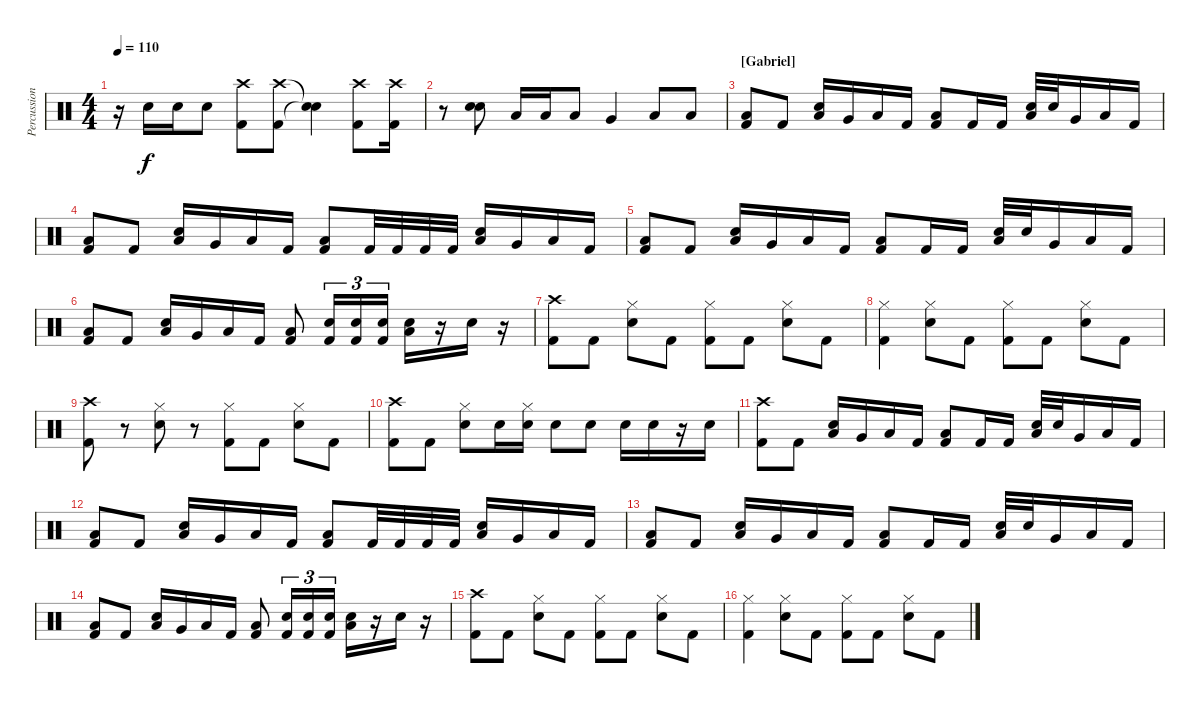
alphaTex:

\track ("Percussions" "Percussion") {instrument percussion}
\staff {score}
\articulation defaults
\ts (4 4)
\tempo 110
\clef neutral
\ks c
r.16{dy f} "Electric Snare (hit)".16 "Electric Snare (hit)".16 "Electric Snare (hit)".8 ("Crash high (hit)" "Kick (hit) 2").8 ("Crash high (hit)" "Kick (hit) 2").8 ("Snare (hit)"{t} "Snare (hit)"{t}).4 ("Crash high (hit)" "Kick (hit) 2").8 ("Crash high (hit)" "Kick (hit) 2").16 |
r.8 ("Electric Snare (hit)" "Electric Snare (hit)").8 "Low Tom (hit)".16 "Low Tom (hit)".16 "Low Tom (hit)".8 "Very Low Tom (hit)".4 "Low Floor Tom (hit)".8 "Low Floor Tom (hit)".8 |
\section ("" "[Gabriel]")
("Low Tom (hit)" "Kick (hit) 2").8 "Kick (hit) 2".8 ("Low Tom (hit)" "Electric Snare (hit)").16 "Very Low Tom (hit)".16 "Low Floor Tom (hit)".16 "Kick (hit) 2".16 ("Low Tom (hit)" "Kick (hit) 2").8 "Kick (hit) 2".16 "Kick (hit) 2".16 ("Low Tom (hit)" "Electric Snare (hit)").32 "Electric Snare (hit)".32 "Very Low Tom (hit)".16 "Low Floor Tom (hit)".16 "Kick (hit) 2".16 |
("Low Tom (hit)" "Kick (hit) 2").8 "Kick (hit) 2".8 ("Low Tom (hit)" "Electric Snare (hit)").16 "Very Low Tom (hit)".16 "Low Floor Tom (hit)".16 "Kick (hit) 2".16 ("Low Tom (hit)" "Kick (hit) 2").8 "Kick (hit) 2".32 "Kick (hit) 2".32 "Kick (hit) 2".32 "Kick (hit) 2".32 ("Low Tom (hit)" "Electric Snare (hit)").16 "Very Low Tom (hit)".16 "Low Floor Tom (hit)".16 "Kick (hit) 2".16 |
("Low Tom (hit)" "Kick (hit) 2").8 "Kick (hit) 2".8 ("Low Tom (hit)" "Electric Snare (hit)").16 "Very Low Tom (hit)".16 "Low Floor Tom (hit)".16 "Kick (hit) 2".16 ("Low Tom (hit)" "Kick (hit) 2").8 "Kick (hit) 2".16 "Kick (hit) 2".16 ("Low Tom (hit)" "Electric Snare (hit)").32 "Electric Snare (hit)".32 "Very Low Tom (hit)".16 "Low Floor Tom (hit)".16 "Kick (hit) 2".16 |
("Low Tom (hit)" "Kick (hit) 2").8 "Kick (hit) 2".8 ("Low Tom (hit)" "Electric Snare (hit)").16 "Very Low Tom (hit)".16 "Low Floor Tom (hit)".16 "Kick (hit) 2".16 ("Low Tom (hit)" "Kick (hit) 2").8 ("Electric Snare (hit)" "Kick (hit) 2").16{tu (3 2)} ("Electric Snare (hit)" "Kick (hit) 2").16{tu (3 2)} ("Electric Snare (hit)" "Kick (hit) 2").16{tu (3 2)} ("Low Tom (hit)" "Electric Snare (hit)").16 r.16 "Electric Snare (hit)".16 r.16 |
("Crash high (hit)" "Kick (hit) 2").8 "Kick (hit) 2".8 ("Hi-Hat (closed)" "Electric Snare (hit)").8 "Kick (hit) 2".8 ("Hi-Hat (closed)" "Kick (hit) 2").8 "Kick (hit) 2".8 ("Hi-Hat (closed)" "Electric Snare (hit)").8 "Kick (hit) 2".8 |
("Hi-Hat (closed)" "Kick (hit) 2").4 ("Hi-Hat (closed)" "Electric Snare (hit)").8 "Kick (hit) 2".8 ("Hi-Hat (closed)" "Kick (hit) 2").8 "Kick (hit) 2".8 ("Hi-Hat (closed)" "Electric Snare (hit)").8 "Kick (hit) 2".8 |
("Crash high (hit)" "Kick (hit) 2").8 r.8 ("Hi-Hat (closed)" "Electric Snare (hit)").8 r.8 ("Hi-Hat (closed)" "Kick (hit) 2").8 "Kick (hit) 2".8 ("Hi-Hat (closed)" "Electric Snare (hit)").8 "Kick (hit) 2".8 |
("Crash high (hit)" "Kick (hit) 2").8 "Kick (hit) 2".8 ("Hi-Hat (closed)" "Electric Snare (hit)").8 "Electric Snare (hit)".16 ("Hi-Hat (closed)" "Electric Snare (hit)").16 "Electric Snare (hit)".8 "Electric Snare (hit)".8 "Electric Snare (hit)".16 "Electric Snare (hit)".16 r.16 "Electric Snare (hit)".16 |
("Crash high (hit)" "Kick (hit) 2").8 "Kick (hit) 2".8 ("Low Tom (hit)" "Electric Snare (hit)").16 "Very Low Tom (hit)".16 "Low Floor Tom (hit)".16 "Kick (hit) 2".16 ("Low Tom (hit)" "Kick (hit) 2").8 "Kick (hit) 2".16 "Kick (hit) 2".16 ("Low Tom (hit)" "Electric Snare (hit)").32 "Electric Snare (hit)".32 "Very Low Tom (hit)".16 "Low Floor Tom (hit)".16 "Kick (hit) 2".16 |
("Low Tom (hit)" "Kick (hit) 2").8 "Kick (hit) 2".8 ("Low Tom (hit)" "Electric Snare (hit)").16 "Very Low Tom (hit)".16 "Low Floor Tom (hit)".16 "Kick (hit) 2".16 ("Low Tom (hit)" "Kick (hit) 2").8 "Kick (hit) 2".32 "Kick (hit) 2".32 "Kick (hit) 2".32 "Kick (hit) 2".32 ("Low Tom (hit)" "Electric Snare (hit)").16 "Very Low Tom (hit)".16 "Low Floor Tom (hit)".16 "Kick (hit) 2".16 |
("Low Tom (hit)" "Kick (hit) 2").8 "Kick (hit) 2".8 ("Low Tom (hit)" "Electric Snare (hit)").16 "Very Low Tom (hit)".16 "Low Floor Tom (hit)".16 "Kick (hit) 2".16 ("Low Tom (hit)" "Kick (hit) 2").8 "Kick (hit) 2".16 "Kick (hit) 2".16 ("Low Tom (hit)" "Electric Snare (hit)").32 "Electric Snare (hit)".32 "Very Low Tom (hit)".16 "Low Floor Tom (hit)".16 "Kick (hit) 2".16 |
("Low Tom (hit)" "Kick (hit) 2").8 "Kick (hit) 2".8 ("Low Tom (hit)" "Electric Snare (hit)").16 "Very Low Tom (hit)".16 "Low Floor Tom (hit)".16 "Kick (hit) 2".16 ("Low Tom (hit)" "Kick (hit) 2").8 ("Electric Snare (hit)" "Kick (hit) 2").16{tu (3 2)} ("Electric Snare (hit)" "Kick (hit) 2").16{tu (3 2)} ("Electric Snare (hit)" "Kick (hit) 2").16{tu (3 2)} ("Low Tom (hit)" "Electric Snare (hit)").16 r.16 "Electric Snare (hit)".16 r.16 |
("Crash high (hit)" "Kick (hit) 2").8 "Kick (hit) 2".8 ("Hi-Hat (closed)" "Electric Snare (hit)").8 "Kick (hit) 2".8 ("Hi-Hat (closed)" "Kick (hit) 2").8 "Kick (hit) 2".8 ("Hi-Hat (closed)" "Electric Snare (hit)").8 "Kick (hit) 2".8 |
("Hi-Hat (closed)" "Kick (hit) 2").4 ("Hi-Hat (closed)" "Electric Snare (hit)").8 "Kick (hit) 2".8 ("Hi-Hat (closed)" "Kick (hit) 2").8 "Kick (hit) 2".8 ("Hi-Hat (closed)" "Electric Snare (hit)").8 "Kick (hit) 2".8
